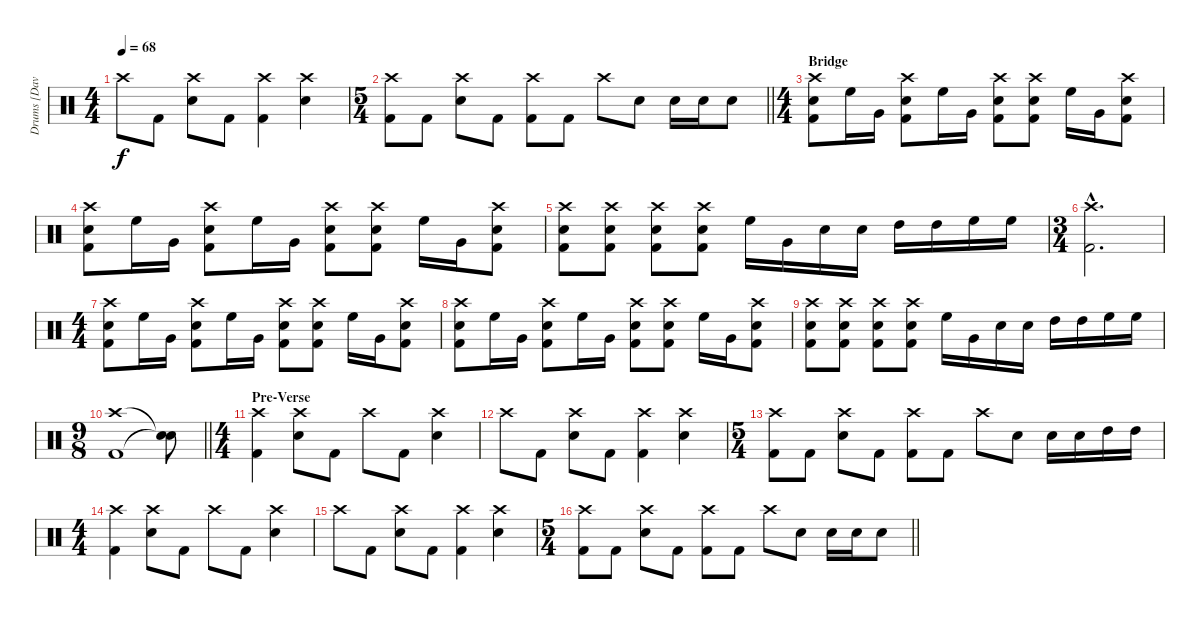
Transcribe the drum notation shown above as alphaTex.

\track ("Drums [Dave Lombardo]" "Drums [Dav") {instrument percussion}
\staff {score}
\articulation defaults
\ts (4 4)
\tempo 68
\clef neutral
\ks c "Crash high (hit)".8{dy f} "Kick (hit) 2".8
("Crash high (hit)" "Electric Snare (hit)").8 "Kick (hit) 2".8 ("Crash high (hit)" "Kick (hit) 2").4 ("Crash high (hit)" "Electric Snare (hit)").4 |
\ts (5 4)
\barLineRight lightlight
("Crash high (hit)" "Kick (hit) 2").8 "Kick (hit) 2".8 ("Crash high (hit)" "Electric Snare (hit)").8 "Kick (hit) 2".8 ("Crash high (hit)" "Kick (hit) 2").8 "Kick (hit) 2".8 "Crash high (hit)".8 "Electric Snare (hit)".8 "Electric Snare (hit)".16 "Electric Snare (hit)".16 "Electric Snare (hit)".8 |
\ts (4 4)
\section ("" "Bridge")
("Crash high (hit)" "Electric Snare (hit)" "Kick (hit) 2").8 "High Floor Tom (hit)".16 "Very Low Tom (hit)".16 ("Crash high (hit)" "Electric Snare (hit)" "Kick (hit) 2").8 "High Floor Tom (hit)".16 "Very Low Tom (hit)".16 ("Crash high (hit)" "Electric Snare (hit)" "Kick (hit) 2").8 ("Crash high (hit)" "Electric Snare (hit)" "Kick (hit) 2").8 "High Floor Tom (hit)".16 "Very Low Tom (hit)".16 ("Crash high (hit)" "Electric Snare (hit)" "Kick (hit) 2").8 |
("Crash high (hit)" "Electric Snare (hit)" "Kick (hit) 2").8 "High Floor Tom (hit)".16 "Very Low Tom (hit)".16 ("Crash high (hit)" "Electric Snare (hit)" "Kick (hit) 2").8 "High Floor Tom (hit)".16 "Very Low Tom (hit)".16 ("Crash high (hit)" "Electric Snare (hit)" "Kick (hit) 2").8 ("Crash high (hit)" "Electric Snare (hit)" "Kick (hit) 2").8 "High Floor Tom (hit)".16 "Very Low Tom (hit)".16 ("Crash high (hit)" "Electric Snare (hit)" "Kick (hit) 2").8 |
("Crash high (hit)" "Electric Snare (hit)" "Kick (hit) 2").8 ("Crash high (hit)" "Electric Snare (hit)" "Kick (hit) 2").8 ("Crash high (hit)" "Electric Snare (hit)" "Kick (hit) 2").8 ("Crash high (hit)" "Electric Snare (hit)" "Kick (hit) 2").8 "High Floor Tom (hit)".16 "Very Low Tom (hit)".16 "Electric Snare (hit)".16 "Electric Snare (hit)".16 "High Tom (hit)".16 "High Tom (hit)".16 "High Floor Tom (hit)".16 "High Floor Tom (hit)".16 |
\ts (3 4)
("Crash high (hit)"{hac} "Kick (hit) 2"{hac}).2{d} |
\ts (4 4)
("Crash high (hit)" "Electric Snare (hit)" "Kick (hit) 2").8 "High Floor Tom (hit)".16 "Very Low Tom (hit)".16 ("Crash high (hit)" "Electric Snare (hit)" "Kick (hit) 2").8 "High Floor Tom (hit)".16 "Very Low Tom (hit)".16 ("Crash high (hit)" "Electric Snare (hit)" "Kick (hit) 2").8 ("Crash high (hit)" "Electric Snare (hit)" "Kick (hit) 2").8 "High Floor Tom (hit)".16 "Very Low Tom (hit)".16 ("Crash high (hit)" "Electric Snare (hit)" "Kick (hit) 2").8 |
("Crash high (hit)" "Electric Snare (hit)" "Kick (hit) 2").8 "High Floor Tom (hit)".16 "Very Low Tom (hit)".16 ("Crash high (hit)" "Electric Snare (hit)" "Kick (hit) 2").8 "High Floor Tom (hit)".16 "Very Low Tom (hit)".16 ("Crash high (hit)" "Electric Snare (hit)" "Kick (hit) 2").8 ("Crash high (hit)" "Electric Snare (hit)" "Kick (hit) 2").8 "High Floor Tom (hit)".16 "Very Low Tom (hit)".16 ("Crash high (hit)" "Electric Snare (hit)" "Kick (hit) 2").8 |
("Crash high (hit)" "Electric Snare (hit)" "Kick (hit) 2").8 ("Crash high (hit)" "Electric Snare (hit)" "Kick (hit) 2").8 ("Crash high (hit)" "Electric Snare (hit)" "Kick (hit) 2").8 ("Crash high (hit)" "Electric Snare (hit)" "Kick (hit) 2").8 "High Floor Tom (hit)".16 "Very Low Tom (hit)".16 "Electric Snare (hit)".16 "Electric Snare (hit)".16 "High Tom (hit)".16 "High Tom (hit)".16 "High Floor Tom (hit)".16 "High Floor Tom (hit)".16 |
\ts (9 8)
\barLineRight lightlight
("Crash high (hit)" "Kick (hit) 2").1 ("Snare (hit)"{t} "Snare (hit)"{t}).8 |
\ts (4 4)
\section ("" "Pre-Verse")
("Crash high (hit)" "Kick (hit) 2").4 ("Crash high (hit)" "Electric Snare (hit)").8 "Kick (hit) 2".8 "Crash high (hit)".8 "Kick (hit) 2".8 ("Crash high (hit)" "Electric Snare (hit)").4 |
"Crash high (hit)".8 "Kick (hit) 2".8 ("Crash high (hit)" "Electric Snare (hit)").8 "Kick (hit) 2".8 ("Crash high (hit)" "Kick (hit) 2").4 ("Crash high (hit)" "Electric Snare (hit)").4 |
\ts (5 4)
("Crash high (hit)" "Kick (hit) 2").8 "Kick (hit) 2".8 ("Crash high (hit)" "Electric Snare (hit)").8 "Kick (hit) 2".8 ("Crash high (hit)" "Kick (hit) 2").8 "Kick (hit) 2".8 "Crash high (hit)".8 "Electric Snare (hit)".8 "Electric Snare (hit)".16 "Electric Snare (hit)".16 "High Tom (hit)".16 "High Tom (hit)".16 |
\ts (4 4)
("Crash high (hit)" "Kick (hit) 2").4 ("Crash high (hit)" "Electric Snare (hit)").8 "Kick (hit) 2".8 "Crash high (hit)".8 "Kick (hit) 2".8 ("Crash high (hit)" "Electric Snare (hit)").4 |
"Crash high (hit)".8 "Kick (hit) 2".8 ("Crash high (hit)" "Electric Snare (hit)").8 "Kick (hit) 2".8 ("Crash high (hit)" "Kick (hit) 2").4 ("Crash high (hit)" "Electric Snare (hit)").4 |
\ts (5 4)
\barLineRight lightlight
("Crash high (hit)" "Kick (hit) 2").8 "Kick (hit) 2".8 ("Crash high (hit)" "Electric Snare (hit)").8 "Kick (hit) 2".8 ("Crash high (hit)" "Kick (hit) 2").8 "Kick (hit) 2".8 "Crash high (hit)".8 "Electric Snare (hit)".8 "Electric Snare (hit)".16 "Electric Snare (hit)".16 "Electric Snare (hit)".8
